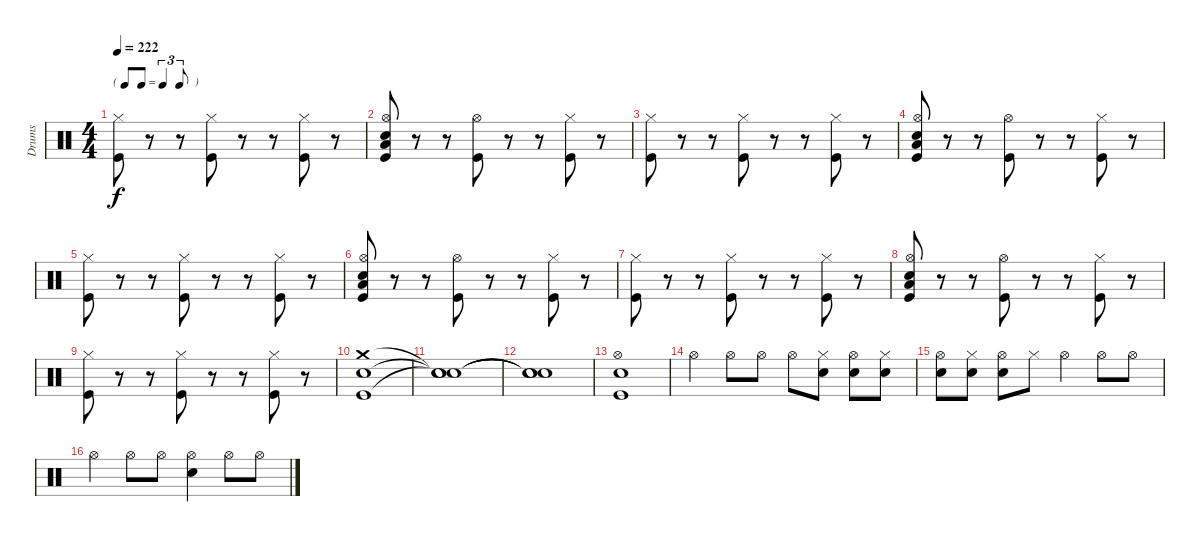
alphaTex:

\track ("Drums" "Drums") {instrument percussion}
\staff {score}
\articulation defaults
\ts (4 4)
\tf triplet8th
\tempo 222
\clef neutral
\ks c
("Hi-Hat (closed)" "Kick (hit)").8{dy f} r.8 r.8 ("Hi-Hat (closed)" "Kick (hit)").8 r.8 r.8 ("Hi-Hat (closed)" "Kick (hit)").8 r.8 |
("Snare (hit) 2" "Hi-Hat (open)" "Low Floor Tom (hit)" "Kick (hit)").8 r.8 r.8 ("Hi-Hat (open)" "Kick (hit)").8 r.8 r.8 ("Hi-Hat (closed)" "Kick (hit)").8 r.8 |
("Hi-Hat (closed)" "Kick (hit)").8 r.8 r.8 ("Hi-Hat (closed)" "Kick (hit)").8 r.8 r.8 ("Hi-Hat (closed)" "Kick (hit)").8 r.8 |
("Snare (hit) 2" "Hi-Hat (open)" "Low Floor Tom (hit)" "Kick (hit)").8 r.8 r.8 ("Hi-Hat (open)" "Kick (hit)").8 r.8 r.8 ("Hi-Hat (closed)" "Kick (hit)").8 r.8 |
("Hi-Hat (closed)" "Kick (hit)").8 r.8 r.8 ("Hi-Hat (closed)" "Kick (hit)").8 r.8 r.8 ("Hi-Hat (closed)" "Kick (hit)").8 r.8 |
("Snare (hit) 2" "Hi-Hat (open)" "Low Floor Tom (hit)" "Kick (hit)").8 r.8 r.8 ("Hi-Hat (open)" "Kick (hit)").8 r.8 r.8 ("Hi-Hat (closed)" "Kick (hit)").8 r.8 |
("Hi-Hat (closed)" "Kick (hit)").8 r.8 r.8 ("Hi-Hat (closed)" "Kick (hit)").8 r.8 r.8 ("Hi-Hat (closed)" "Kick (hit)").8 r.8 |
("Snare (hit) 2" "Hi-Hat (open)" "Low Floor Tom (hit)" "Kick (hit)").8 r.8 r.8 ("Hi-Hat (open)" "Kick (hit)").8 r.8 r.8 ("Hi-Hat (closed)" "Kick (hit)").8 r.8 |
("Hi-Hat (closed)" "Kick (hit)").8 r.8 r.8 ("Hi-Hat (closed)" "Kick (hit)").8 r.8 r.8 ("Hi-Hat (closed)" "Kick (hit)").8 r.8 |
("Crash medium (hit)" "Snare (hit) 2" "Kick (hit)").1 |
("Snare (hit)"{t} "Snare (hit)"{t} "Snare (hit)"{t}).1 |
("Snare (hit)"{t} "Snare (hit)"{t} "Snare (hit)"{t}).1 |
("Snare (hit) 2" "Hi-Hat (open)" "Kick (hit)").1 |
"Hi-Hat (open)".4 "Hi-Hat (open)".8 "Hi-Hat (open)".8 "Hi-Hat (open)".8 ("Hi-Hat (closed)" "Snare (hit) 2").8 ("Snare (hit) 2" "Hi-Hat (open)").8 ("Hi-Hat (closed)" "Snare (hit) 2").8 |
("Snare (hit) 2" "Hi-Hat (open)").8 ("Snare (hit) 2" "Hi-Hat (closed)").8 ("Snare (hit) 2" "Hi-Hat (open)").8 "Hi-Hat (closed)".8 "Hi-Hat (open)".4 "Hi-Hat (open)".8 "Hi-Hat (open)".8 |
"Hi-Hat (open)".4 "Hi-Hat (open)".8 "Hi-Hat (open)".8 ("Snare (hit) 2" "Hi-Hat (open)").4 "Hi-Hat (open)".8 "Hi-Hat (open)".8
